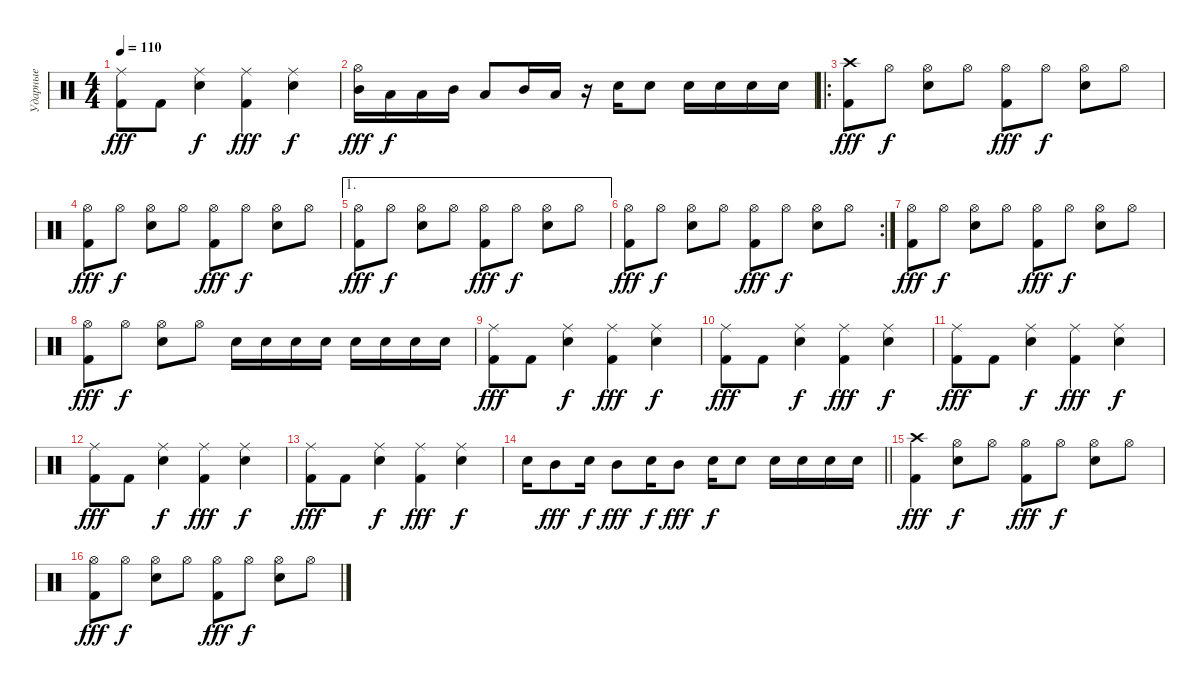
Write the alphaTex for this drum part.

\track ("Ударные" "Ударные") {instrument percussion}
\staff
\articulation defaults
\ts (4 4)
\tempo 110
\clef neutral
\ks c
("Kick (hit) 2" "Ride (middle)").8{dy fff} "Kick (hit) 2".8 ("Snare (hit) 2" "Ride (middle)").4{dy f} ("Kick (hit) 2" "Ride (middle)").4{dy fff} ("Snare (hit) 2" "Ride (middle)").4{dy f} |
("Hi-Hat (open)" "Mid Tom (hit)").16{dy fff} "Low Tom (hit)".16{dy f} "Low Tom (hit)".16 "Mid Tom (hit)".16 "Low Tom (hit)".8 "Mid Tom (hit)".16 "Low Tom (hit)".16 r.16 "Snare (hit) 2".16 "Snare (hit) 2".8 "Snare (hit) 2".16 "Snare (hit) 2".16 "Snare (hit) 2".16 "Snare (hit) 2".16 |
\ro
("Kick (hit) 2" "Crash high (hit)").8{dy fff} "Hi-Hat (open)".8{dy f} ("Snare (hit) 2" "Hi-Hat (open)").8 "Hi-Hat (open)".8 ("Kick (hit) 2" "Hi-Hat (open)").8{dy fff} "Hi-Hat (open)".8{dy f} ("Snare (hit) 2" "Hi-Hat (open)").8 "Hi-Hat (open)".8 |
("Kick (hit) 2" "Hi-Hat (open)").8{dy fff} "Hi-Hat (open)".8{dy f} ("Snare (hit) 2" "Hi-Hat (open)").8 "Hi-Hat (open)".8 ("Kick (hit) 2" "Hi-Hat (open)").8{dy fff} "Hi-Hat (open)".8{dy f} ("Snare (hit) 2" "Hi-Hat (open)").8 "Hi-Hat (open)".8 |
\ae 1
("Kick (hit) 2" "Hi-Hat (open)").8{dy fff} "Hi-Hat (open)".8{dy f} ("Snare (hit) 2" "Hi-Hat (open)").8 "Hi-Hat (open)".8 ("Kick (hit) 2" "Hi-Hat (open)").8{dy fff} "Hi-Hat (open)".8{dy f} ("Snare (hit) 2" "Hi-Hat (open)").8 "Hi-Hat (open)".8 |
\rc 2
("Kick (hit) 2" "Hi-Hat (open)").8{dy fff} "Hi-Hat (open)".8{dy f} ("Snare (hit) 2" "Hi-Hat (open)").8 "Hi-Hat (open)".8 ("Kick (hit) 2" "Hi-Hat (open)").8{dy fff} "Hi-Hat (open)".8{dy f} ("Snare (hit) 2" "Hi-Hat (open)").8 "Hi-Hat (open)".8 |
("Kick (hit) 2" "Hi-Hat (open)").8{dy fff} "Hi-Hat (open)".8{dy f} ("Snare (hit) 2" "Hi-Hat (open)").8 "Hi-Hat (open)".8 ("Kick (hit) 2" "Hi-Hat (open)").8{dy fff} "Hi-Hat (open)".8{dy f} ("Snare (hit) 2" "Hi-Hat (open)").8 "Hi-Hat (open)".8 |
("Kick (hit) 2" "Hi-Hat (open)").8{dy fff} "Hi-Hat (open)".8{dy f} ("Snare (hit) 2" "Hi-Hat (open)").8 "Hi-Hat (open)".8 "Snare (hit) 2".16 "Snare (hit) 2".16 "Snare (hit) 2".16 "Snare (hit) 2".16 "Snare (hit) 2".16 "Snare (hit) 2".16 "Snare (hit) 2".16 "Snare (hit) 2".16 |
("Kick (hit) 2" "Ride (middle)").8{dy fff} "Kick (hit) 2".8 ("Snare (hit) 2" "Ride (middle)").4{dy f} ("Kick (hit) 2" "Ride (middle)").4{dy fff} ("Snare (hit) 2" "Ride (middle)").4{dy f} |
("Kick (hit) 2" "Ride (middle)").8{dy fff} "Kick (hit) 2".8 ("Snare (hit) 2" "Ride (middle)").4{dy f} ("Kick (hit) 2" "Ride (middle)").4{dy fff} ("Snare (hit) 2" "Ride (middle)").4{dy f} |
("Kick (hit) 2" "Ride (middle)").8{dy fff} "Kick (hit) 2".8 ("Snare (hit) 2" "Ride (middle)").4{dy f} ("Kick (hit) 2" "Ride (middle)").4{dy fff} ("Snare (hit) 2" "Ride (middle)").4{dy f} |
("Kick (hit) 2" "Ride (middle)").8{dy fff} "Kick (hit) 2".8 ("Snare (hit) 2" "Ride (middle)").4{dy f} ("Kick (hit) 2" "Ride (middle)").4{dy fff} ("Snare (hit) 2" "Ride (middle)").4{dy f} |
("Kick (hit) 2" "Ride (middle)").8{dy fff} "Kick (hit) 2".8 ("Snare (hit) 2" "Ride (middle)").4{dy f} ("Kick (hit) 2" "Ride (middle)").4{dy fff} ("Snare (hit) 2" "Ride (middle)").4{dy f} |
\barLineRight lightlight "Snare (hit) 2".16 "Mid Tom (hit)".8{dy fff} "Snare (hit) 2".16{dy f} "Mid Tom (hit)".8{dy fff} "Snare (hit) 2".16{dy f} "Mid Tom (hit)".8{dy fff} "Snare (hit) 2".16{dy f} "Snare (hit) 2".8 "Snare (hit) 2".16 "Snare (hit) 2".16 "Snare (hit) 2".16 "Snare (hit) 2".16
|
("Kick (hit) 2" "Crash high (hit)").4{dy fff} ("Snare (hit) 2" "Hi-Hat (open)").8{dy f} "Hi-Hat (open)".8 ("Kick (hit) 2" "Hi-Hat (open)").8{dy fff} "Hi-Hat (open)".8{dy f} ("Snare (hit) 2" "Hi-Hat (open)").8 "Hi-Hat (open)".8 |
("Kick (hit) 2" "Hi-Hat (open)").8{dy fff} "Hi-Hat (open)".8{dy f} ("Snare (hit) 2" "Hi-Hat (open)").8 "Hi-Hat (open)".8 ("Kick (hit) 2" "Hi-Hat (open)").8{dy fff} "Hi-Hat (open)".8{dy f} ("Snare (hit) 2" "Hi-Hat (open)").8 "Hi-Hat (open)".8
